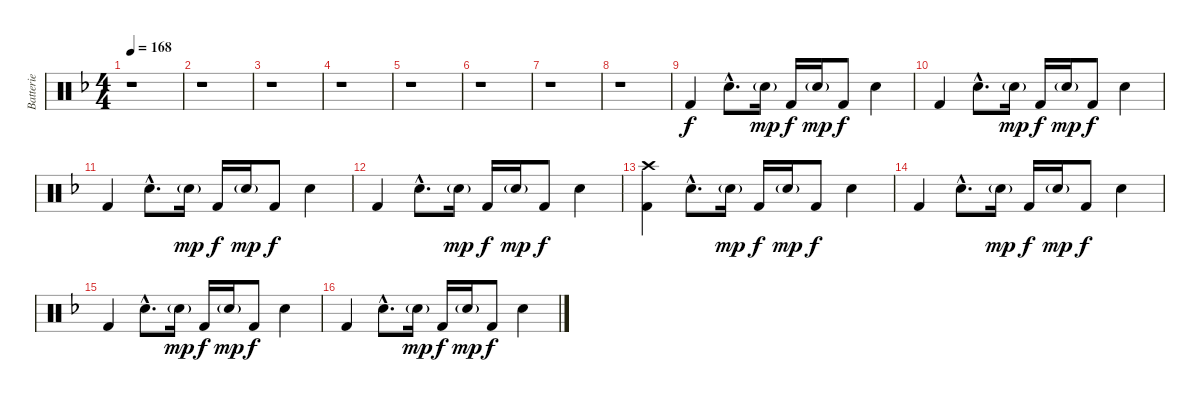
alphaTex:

\track ("Batterie" "Batterie") {instrument percussion}
\staff {score}
\articulation defaults
\ts (4 4)
\tempo 168
\clef neutral
\ks f
r.1{dy f} |
r.1 |
r.1 |
r.1 |
r.1 |
r.1 |
r.1 |
r.1 |
"Kick (hit) 2".4 "Snare (hit) 2"{hac}.8{d} "Snare (hit) 2"{g}.16{dy mp} "Kick (hit) 2".16{dy f} "Snare (hit) 2"{g}.16{dy mp} "Kick (hit) 2".8{dy f} "Snare (hit) 2".4 |
"Kick (hit) 2".4 "Snare (hit) 2"{hac}.8{d} "Snare (hit) 2"{g}.16{dy mp} "Kick (hit) 2".16{dy f} "Snare (hit) 2"{g}.16{dy mp} "Kick (hit) 2".8{dy f} "Snare (hit) 2".4 |
"Kick (hit) 2".4 "Snare (hit) 2"{hac}.8{d} "Snare (hit) 2"{g}.16{dy mp} "Kick (hit) 2".16{dy f} "Snare (hit) 2"{g}.16{dy mp} "Kick (hit) 2".8{dy f} "Snare (hit) 2".4 |
"Kick (hit) 2".4 "Snare (hit) 2"{hac}.8{d} "Snare (hit) 2"{g}.16{dy mp} "Kick (hit) 2".16{dy f} "Snare (hit) 2"{g}.16{dy mp} "Kick (hit) 2".8{dy f} "Snare (hit) 2".4 |
("Crash high (hit)" "Kick (hit) 2").4 "Snare (hit) 2"{hac}.8{d} "Snare (hit) 2"{g}.16{dy mp} "Kick (hit) 2".16{dy f} "Snare (hit) 2"{g}.16{dy mp} "Kick (hit) 2".8{dy f} "Snare (hit) 2".4 |
"Kick (hit) 2".4 "Snare (hit) 2"{hac}.8{d} "Snare (hit) 2"{g}.16{dy mp} "Kick (hit) 2".16{dy f} "Snare (hit) 2"{g}.16{dy mp} "Kick (hit) 2".8{dy f} "Snare (hit) 2".4 |
"Kick (hit) 2".4 "Snare (hit) 2"{hac}.8{d} "Snare (hit) 2"{g}.16{dy mp} "Kick (hit) 2".16{dy f} "Snare (hit) 2"{g}.16{dy mp} "Kick (hit) 2".8{dy f} "Snare (hit) 2".4 |
"Kick (hit) 2".4 "Snare (hit) 2"{hac}.8{d} "Snare (hit) 2"{g}.16{dy mp} "Kick (hit) 2".16{dy f} "Snare (hit) 2"{g}.16{dy mp} "Kick (hit) 2".8{dy f} "Snare (hit) 2".4
